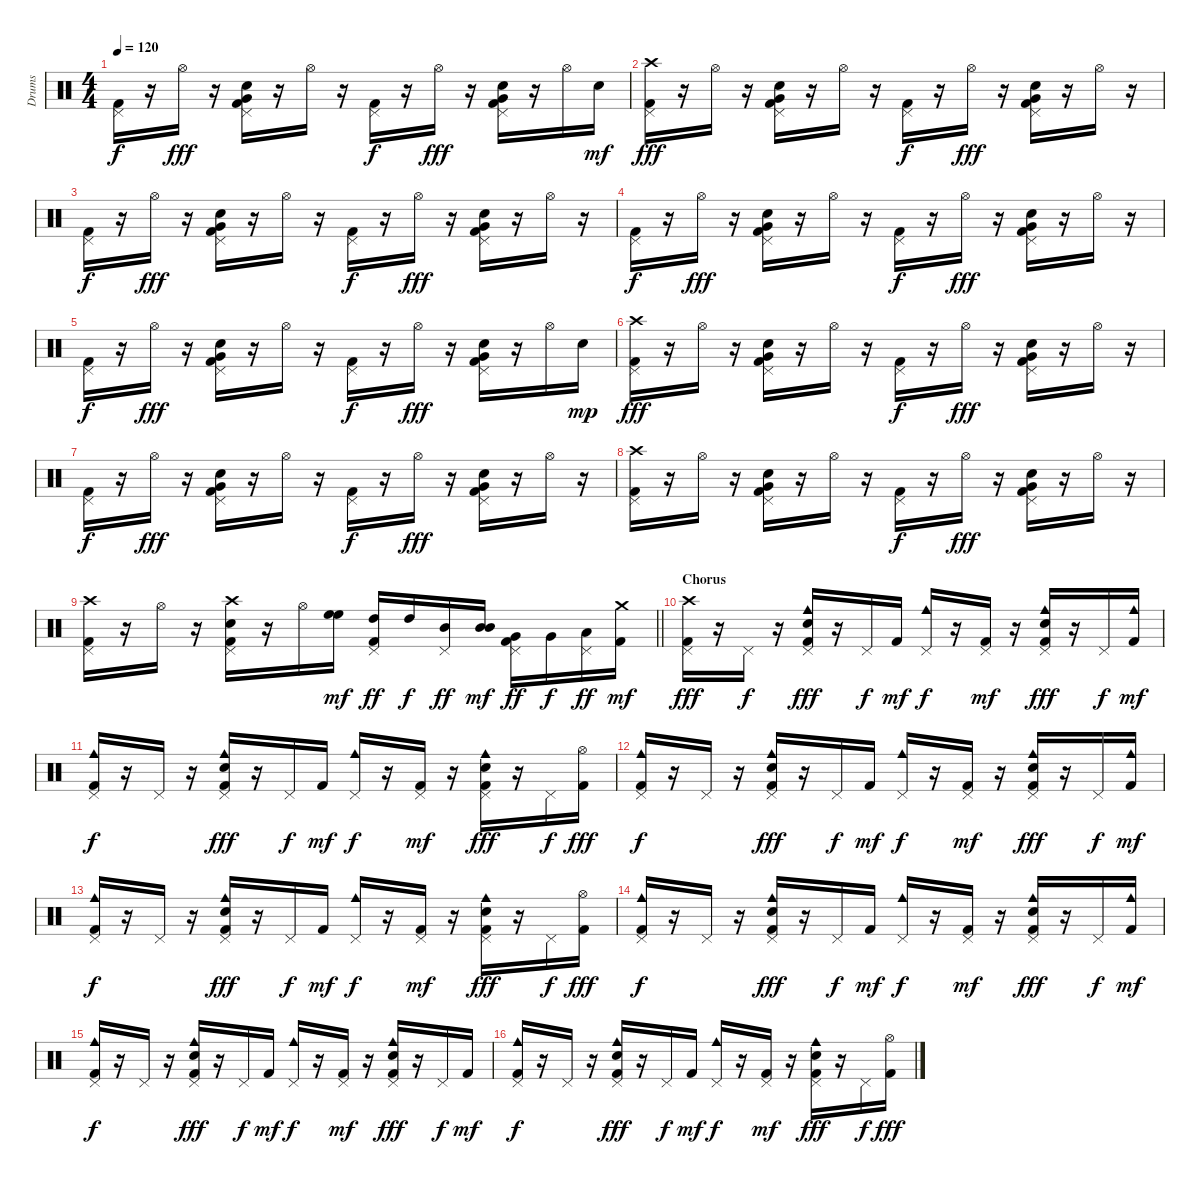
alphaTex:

\track ("Drums" "Drums") {instrument percussion}
\staff {score}
\articulation defaults
\ts (4 4)
\tempo 120
\clef neutral
\ks c
("Kick (hit) 2" "Pedal Hi-Hat (hit)").16{dy f} r.16 "Hi-Hat (open)".16{dy fff} r.16 ("Kick (hit) 2" "Pedal Hi-Hat (hit)" "Snare (hit) 2" "Very Low Tom (hit)").16 r.16 "Hi-Hat (open)".16 r.16 ("Kick (hit) 2" "Pedal Hi-Hat (hit)").16{dy f} r.16 "Hi-Hat (open)".16{dy fff} r.16 ("Kick (hit) 2" "Pedal Hi-Hat (hit)" "Snare (hit) 2" "Very Low Tom (hit)").16 r.16 "Hi-Hat (open)".16 "Snare (hit) 2".16{dy mf} |
("Kick (hit) 2" "Pedal Hi-Hat (hit)" "Crash high (hit)").16{dy fff} r.16 "Hi-Hat (open)".16 r.16 ("Kick (hit) 2" "Pedal Hi-Hat (hit)" "Snare (hit) 2" "Very Low Tom (hit)").16 r.16 "Hi-Hat (open)".16 r.16 ("Kick (hit) 2" "Pedal Hi-Hat (hit)").16{dy f} r.16 "Hi-Hat (open)".16{dy fff} r.16 ("Kick (hit) 2" "Pedal Hi-Hat (hit)" "Snare (hit) 2" "Very Low Tom (hit)").16 r.16 "Hi-Hat (open)".16 r.16 |
("Kick (hit) 2" "Pedal Hi-Hat (hit)").16{dy f} r.16 "Hi-Hat (open)".16{dy fff} r.16 ("Kick (hit) 2" "Pedal Hi-Hat (hit)" "Snare (hit) 2" "Very Low Tom (hit)").16 r.16 "Hi-Hat (open)".16 r.16 ("Kick (hit) 2" "Pedal Hi-Hat (hit)").16{dy f} r.16 "Hi-Hat (open)".16{dy fff} r.16 ("Kick (hit) 2" "Pedal Hi-Hat (hit)" "Snare (hit) 2" "Very Low Tom (hit)").16 r.16 "Hi-Hat (open)".16 r.16 |
("Kick (hit) 2" "Pedal Hi-Hat (hit)").16{dy f} r.16 "Hi-Hat (open)".16{dy fff} r.16 ("Kick (hit) 2" "Pedal Hi-Hat (hit)" "Snare (hit) 2" "Very Low Tom (hit)").16 r.16 "Hi-Hat (open)".16 r.16 ("Kick (hit) 2" "Pedal Hi-Hat (hit)").16{dy f} r.16 "Hi-Hat (open)".16{dy fff} r.16 ("Kick (hit) 2" "Pedal Hi-Hat (hit)" "Snare (hit) 2" "Very Low Tom (hit)").16 r.16 "Hi-Hat (open)".16 r.16 |
("Kick (hit) 2" "Pedal Hi-Hat (hit)").16{dy f} r.16 "Hi-Hat (open)".16{dy fff} r.16 ("Kick (hit) 2" "Pedal Hi-Hat (hit)" "Snare (hit) 2" "Very Low Tom (hit)").16 r.16 "Hi-Hat (open)".16 r.16 ("Kick (hit) 2" "Pedal Hi-Hat (hit)").16{dy f} r.16 "Hi-Hat (open)".16{dy fff} r.16 ("Kick (hit) 2" "Pedal Hi-Hat (hit)" "Snare (hit) 2" "Very Low Tom (hit)").16 r.16 "Hi-Hat (open)".16 "Snare (hit) 2".16{dy mp} |
("Kick (hit) 2" "Pedal Hi-Hat (hit)" "Crash high (hit)").16{dy fff} r.16 "Hi-Hat (open)".16 r.16 ("Kick (hit) 2" "Pedal Hi-Hat (hit)" "Snare (hit) 2" "Very Low Tom (hit)").16 r.16 "Hi-Hat (open)".16 r.16 ("Kick (hit) 2" "Pedal Hi-Hat (hit)").16{dy f} r.16 "Hi-Hat (open)".16{dy fff} r.16 ("Kick (hit) 2" "Pedal Hi-Hat (hit)" "Snare (hit) 2" "Very Low Tom (hit)").16 r.16 "Hi-Hat (open)".16 r.16 |
("Kick (hit) 2" "Pedal Hi-Hat (hit)").16{dy f} r.16 "Hi-Hat (open)".16{dy fff} r.16 ("Kick (hit) 2" "Pedal Hi-Hat (hit)" "Snare (hit) 2" "Very Low Tom (hit)").16 r.16 "Hi-Hat (open)".16 r.16 ("Kick (hit) 2" "Pedal Hi-Hat (hit)").16{dy f} r.16 "Hi-Hat (open)".16{dy fff} r.16 ("Kick (hit) 2" "Pedal Hi-Hat (hit)" "Snare (hit) 2" "Very Low Tom (hit)").16 r.16 "Hi-Hat (open)".16 r.16 |
("Kick (hit) 2" "Pedal Hi-Hat (hit)" "Crash high (hit)").16 r.16 "Hi-Hat (open)".16 r.16 ("Kick (hit) 2" "Pedal Hi-Hat (hit)" "Snare (hit) 2" "Very Low Tom (hit)").16 r.16 "Hi-Hat (open)".16 r.16 ("Kick (hit) 2" "Pedal Hi-Hat (hit)").16{dy f} r.16 "Hi-Hat (open)".16{dy fff} r.16 ("Kick (hit) 2" "Pedal Hi-Hat (hit)" "Snare (hit) 2" "Very Low Tom (hit)").16 r.16 "Hi-Hat (open)".16 r.16 |
\barLineRight lightlight
("Kick (hit) 2" "Pedal Hi-Hat (hit)" "Crash high (hit)").16 r.16 "Hi-Hat (open)".16 r.16 ("Kick (hit) 2" "Pedal Hi-Hat (hit)" "Snare (hit) 2" "Crash high (hit)").16 r.16 "Hi-Hat (open)".16 ("High Floor Tom (hit)" "High Floor Tom (hit)").16{dy mf} ("High Tom (hit)" "Kick (hit) 2" "Pedal Hi-Hat (hit)").16{dy ff} "High Tom (hit)".16{dy f} ("Mid Tom (hit)" "Pedal Hi-Hat (hit)").16{dy ff} ("Mid Tom (hit)" "Mid Tom (hit)").16{dy mf} ("Very Low Tom (hit)" "Kick (hit) 2" "Pedal Hi-Hat (hit)").16{dy ff} "Very Low Tom (hit)".16{dy f} ("Low Floor Tom (hit)" "Pedal Hi-Hat (hit)").16{dy ff} ("Kick (hit) 2" "Crash medium (hit)").16{dy mf} |
\section ("" "Chorus")
("Crash high (hit)" "Kick (hit) 2" "Pedal Hi-Hat (hit)").16{dy fff} r.16 "Pedal Hi-Hat (hit)".16{dy f} r.16 ("Cowbell medium (hit)" "Snare (hit) 2" "Kick (hit) 2" "Pedal Hi-Hat (hit)").16{dy fff} r.16 "Pedal Hi-Hat (hit)".16{dy f} "Kick (hit) 2".16{dy mf} ("Cowbell medium (hit)" "Pedal Hi-Hat (hit)").16{dy f} r.16 ("Kick (hit) 2" "Pedal Hi-Hat (hit)").16{dy mf} r.16 ("Cowbell medium (hit)" "Snare (hit) 2" "Kick (hit) 2" "Pedal Hi-Hat (hit)").16{dy fff} r.16 "Pedal Hi-Hat (hit)".16{dy f} ("Cowbell medium (hit)" "Kick (hit) 2").16{dy mf} |
("Cowbell medium (hit)" "Kick (hit) 2" "Pedal Hi-Hat (hit)").16{dy f} r.16 "Pedal Hi-Hat (hit)".16 r.16 ("Cowbell medium (hit)" "Snare (hit) 2" "Kick (hit) 2" "Pedal Hi-Hat (hit)").16{dy fff} r.16 "Pedal Hi-Hat (hit)".16{dy f} "Kick (hit) 2".16{dy mf} ("Cowbell medium (hit)" "Pedal Hi-Hat (hit)").16{dy f} r.16 ("Kick (hit) 2" "Pedal Hi-Hat (hit)").16{dy mf} r.16 ("Cowbell medium (hit)" "Snare (hit) 2" "Kick (hit) 2" "Pedal Hi-Hat (hit)").16{dy fff} r.16 "Pedal Hi-Hat (hit)".16{dy f} ("Kick (hit) 2" "Hi-Hat (open)").16{dy fff} |
("Kick (hit) 2" "Pedal Hi-Hat (hit)" "Cowbell medium (hit)").16{dy f} r.16 "Pedal Hi-Hat (hit)".16 r.16 ("Cowbell medium (hit)" "Snare (hit) 2" "Kick (hit) 2" "Pedal Hi-Hat (hit)").16{dy fff} r.16 "Pedal Hi-Hat (hit)".16{dy f} "Kick (hit) 2".16{dy mf} ("Cowbell medium (hit)" "Pedal Hi-Hat (hit)").16{dy f} r.16 ("Kick (hit) 2" "Pedal Hi-Hat (hit)").16{dy mf} r.16 ("Cowbell medium (hit)" "Snare (hit) 2" "Kick (hit) 2" "Pedal Hi-Hat (hit)").16{dy fff} r.16 "Pedal Hi-Hat (hit)".16{dy f} ("Cowbell medium (hit)" "Kick (hit) 2").16{dy mf} |
("Cowbell medium (hit)" "Kick (hit) 2" "Pedal Hi-Hat (hit)").16{dy f} r.16 "Pedal Hi-Hat (hit)".16 r.16 ("Cowbell medium (hit)" "Snare (hit) 2" "Kick (hit) 2" "Pedal Hi-Hat (hit)").16{dy fff} r.16 "Pedal Hi-Hat (hit)".16{dy f} "Kick (hit) 2".16{dy mf} ("Cowbell medium (hit)" "Pedal Hi-Hat (hit)").16{dy f} r.16 ("Kick (hit) 2" "Pedal Hi-Hat (hit)").16{dy mf} r.16 ("Cowbell medium (hit)" "Snare (hit) 2" "Kick (hit) 2" "Pedal Hi-Hat (hit)").16{dy fff} r.16 "Pedal Hi-Hat (hit)".16{dy f} ("Kick (hit) 2" "Hi-Hat (open)").16{dy fff} |
("Kick (hit) 2" "Pedal Hi-Hat (hit)" "Cowbell medium (hit)").16{dy f} r.16 "Pedal Hi-Hat (hit)".16 r.16 ("Cowbell medium (hit)" "Snare (hit) 2" "Kick (hit) 2" "Pedal Hi-Hat (hit)").16{dy fff} r.16 "Pedal Hi-Hat (hit)".16{dy f} "Kick (hit) 2".16{dy mf} ("Cowbell medium (hit)" "Pedal Hi-Hat (hit)").16{dy f} r.16 ("Kick (hit) 2" "Pedal Hi-Hat (hit)").16{dy mf} r.16 ("Cowbell medium (hit)" "Snare (hit) 2" "Kick (hit) 2" "Pedal Hi-Hat (hit)").16{dy fff} r.16 "Pedal Hi-Hat (hit)".16{dy f} ("Cowbell medium (hit)" "Kick (hit) 2").16{dy mf} |
("Cowbell medium (hit)" "Kick (hit) 2" "Pedal Hi-Hat (hit)").16{dy f} r.16 "Pedal Hi-Hat (hit)".16 r.16 ("Cowbell medium (hit)" "Snare (hit) 2" "Kick (hit) 2" "Pedal Hi-Hat (hit)").16{dy fff} r.16 "Pedal Hi-Hat (hit)".16{dy f} "Kick (hit) 2".16{dy mf} ("Cowbell medium (hit)" "Pedal Hi-Hat (hit)").16{dy f} r.16 ("Kick (hit) 2" "Pedal Hi-Hat (hit)").16{dy mf} r.16 ("Cowbell medium (hit)" "Snare (hit) 2" "Kick (hit) 2" "Pedal Hi-Hat (hit)").16{dy fff} r.16 "Pedal Hi-Hat (hit)".16{dy f} "Kick (hit) 2".16{dy mf} |
("Cowbell medium (hit)" "Kick (hit) 2" "Pedal Hi-Hat (hit)").16{dy f} r.16 "Pedal Hi-Hat (hit)".16 r.16 ("Cowbell medium (hit)" "Snare (hit) 2" "Kick (hit) 2" "Pedal Hi-Hat (hit)").16{dy fff} r.16 "Pedal Hi-Hat (hit)".16{dy f} "Kick (hit) 2".16{dy mf} ("Cowbell medium (hit)" "Pedal Hi-Hat (hit)").16{dy f} r.16 ("Kick (hit) 2" "Pedal Hi-Hat (hit)").16{dy mf} r.16 ("Cowbell medium (hit)" "Snare (hit) 2" "Kick (hit) 2" "Pedal Hi-Hat (hit)").16{dy fff} r.16 "Pedal Hi-Hat (hit)".16{dy f} ("Kick (hit) 2" "Hi-Hat (open)").16{dy fff}
